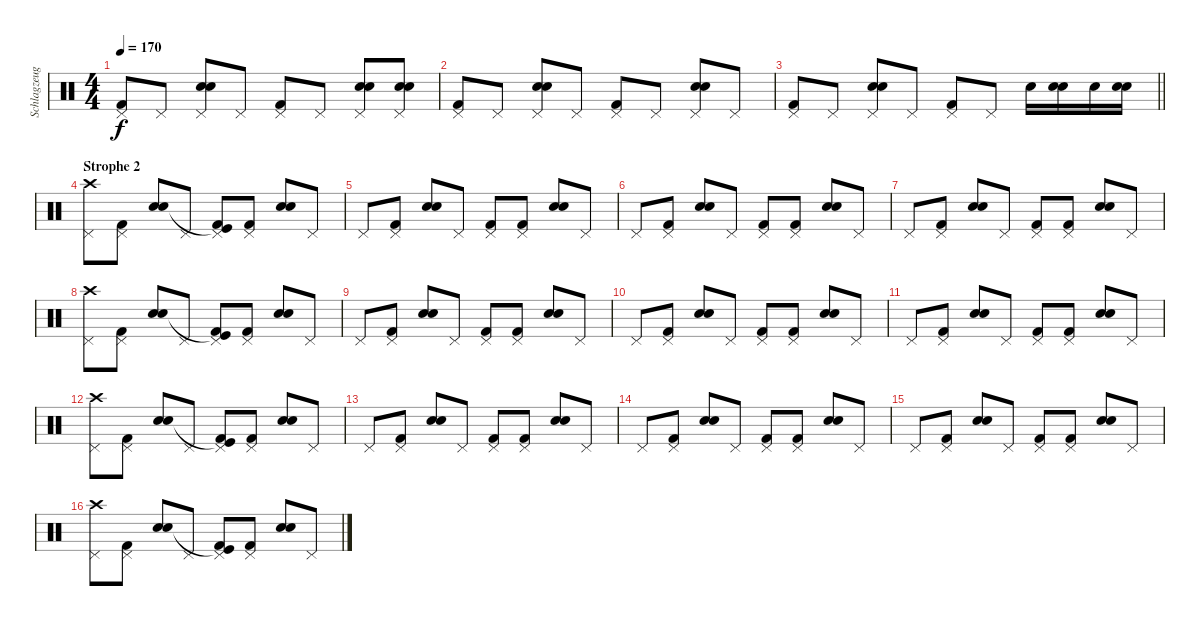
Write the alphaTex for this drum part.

\track ("Schlagzeug" "Schlagzeug") {instrument percussion}
\staff {score}
\articulation defaults
\ts (4 4)
\tempo 170
\clef neutral
\ks c
("Pedal Hi-Hat (hit)" "Kick (hit) 2").8{dy f} "Pedal Hi-Hat (hit)".8 ("Pedal Hi-Hat (hit)" "Snare (hit) 2" "Snare (hit) 2").8 "Pedal Hi-Hat (hit)".8 ("Pedal Hi-Hat (hit)" "Kick (hit) 2").8 "Pedal Hi-Hat (hit)".8 ("Pedal Hi-Hat (hit)" "Snare (hit) 2" "Snare (hit) 2").8 ("Pedal Hi-Hat (hit)" "Snare (hit) 2" "Snare (hit) 2").8 |
("Pedal Hi-Hat (hit)" "Kick (hit) 2").8 "Pedal Hi-Hat (hit)".8 ("Pedal Hi-Hat (hit)" "Snare (hit) 2" "Snare (hit) 2").8 "Pedal Hi-Hat (hit)".8 ("Pedal Hi-Hat (hit)" "Kick (hit) 2").8 "Pedal Hi-Hat (hit)".8 ("Pedal Hi-Hat (hit)" "Snare (hit) 2" "Snare (hit) 2").8 "Pedal Hi-Hat (hit)".8 |
\barLineRight lightlight
("Pedal Hi-Hat (hit)" "Kick (hit) 2").8 "Pedal Hi-Hat (hit)".8 ("Pedal Hi-Hat (hit)" "Snare (hit) 2" "Snare (hit) 2").8 "Pedal Hi-Hat (hit)".8 ("Pedal Hi-Hat (hit)" "Kick (hit) 2").8 "Pedal Hi-Hat (hit)".8 "Snare (hit) 2".16 ("Snare (hit) 2" "Snare (hit) 2").16 "Snare (hit) 2".16 ("Snare (hit) 2" "Snare (hit) 2").16 |
\section ("" "Strophe 2")
("Pedal Hi-Hat (hit)" "Crash high (hit)").8 ("Pedal Hi-Hat (hit)" "Kick (hit) 2").8 ("Snare (hit) 2" "Snare (hit) 2").8 "Pedal Hi-Hat (hit)".8 ("Pedal Hi-Hat (hit)" "Kick (hit)"{t} "Kick (hit) 2").8 ("Pedal Hi-Hat (hit)" "Kick (hit) 2").8 ("Snare (hit) 2" "Snare (hit) 2").8 "Pedal Hi-Hat (hit)".8 |
"Pedal Hi-Hat (hit)".8 ("Pedal Hi-Hat (hit)" "Kick (hit) 2").8 ("Snare (hit) 2" "Snare (hit) 2").8 "Pedal Hi-Hat (hit)".8 ("Pedal Hi-Hat (hit)" "Kick (hit) 2").8 ("Pedal Hi-Hat (hit)" "Kick (hit) 2").8 ("Snare (hit) 2" "Snare (hit) 2").8 "Pedal Hi-Hat (hit)".8 |
"Pedal Hi-Hat (hit)".8 ("Pedal Hi-Hat (hit)" "Kick (hit) 2").8 ("Snare (hit) 2" "Snare (hit) 2").8 "Pedal Hi-Hat (hit)".8 ("Pedal Hi-Hat (hit)" "Kick (hit) 2").8 ("Pedal Hi-Hat (hit)" "Kick (hit) 2").8 ("Snare (hit) 2" "Snare (hit) 2").8 "Pedal Hi-Hat (hit)".8 |
"Pedal Hi-Hat (hit)".8 ("Pedal Hi-Hat (hit)" "Kick (hit) 2").8 ("Snare (hit) 2" "Snare (hit) 2").8 "Pedal Hi-Hat (hit)".8 ("Pedal Hi-Hat (hit)" "Kick (hit) 2").8 ("Pedal Hi-Hat (hit)" "Kick (hit) 2").8 ("Snare (hit) 2" "Snare (hit) 2").8 "Pedal Hi-Hat (hit)".8 |
("Pedal Hi-Hat (hit)" "Crash high (hit)").8 ("Pedal Hi-Hat (hit)" "Kick (hit) 2").8 ("Snare (hit) 2" "Snare (hit) 2").8 "Pedal Hi-Hat (hit)".8 ("Pedal Hi-Hat (hit)" "Kick (hit)"{t} "Kick (hit) 2").8 ("Pedal Hi-Hat (hit)" "Kick (hit) 2").8 ("Snare (hit) 2" "Snare (hit) 2").8 "Pedal Hi-Hat (hit)".8 |
"Pedal Hi-Hat (hit)".8 ("Pedal Hi-Hat (hit)" "Kick (hit) 2").8 ("Snare (hit) 2" "Snare (hit) 2").8 "Pedal Hi-Hat (hit)".8 ("Pedal Hi-Hat (hit)" "Kick (hit) 2").8 ("Pedal Hi-Hat (hit)" "Kick (hit) 2").8 ("Snare (hit) 2" "Snare (hit) 2").8 "Pedal Hi-Hat (hit)".8 |
"Pedal Hi-Hat (hit)".8 ("Pedal Hi-Hat (hit)" "Kick (hit) 2").8 ("Snare (hit) 2" "Snare (hit) 2").8 "Pedal Hi-Hat (hit)".8 ("Pedal Hi-Hat (hit)" "Kick (hit) 2").8 ("Pedal Hi-Hat (hit)" "Kick (hit) 2").8 ("Snare (hit) 2" "Snare (hit) 2").8 "Pedal Hi-Hat (hit)".8 |
"Pedal Hi-Hat (hit)".8 ("Pedal Hi-Hat (hit)" "Kick (hit) 2").8 ("Snare (hit) 2" "Snare (hit) 2").8 "Pedal Hi-Hat (hit)".8 ("Pedal Hi-Hat (hit)" "Kick (hit) 2").8 ("Pedal Hi-Hat (hit)" "Kick (hit) 2").8 ("Snare (hit) 2" "Snare (hit) 2").8 "Pedal Hi-Hat (hit)".8 |
("Pedal Hi-Hat (hit)" "Crash high (hit)").8 ("Pedal Hi-Hat (hit)" "Kick (hit) 2").8 ("Snare (hit) 2" "Snare (hit) 2").8 "Pedal Hi-Hat (hit)".8 ("Pedal Hi-Hat (hit)" "Kick (hit)"{t} "Kick (hit) 2").8 ("Pedal Hi-Hat (hit)" "Kick (hit) 2").8 ("Snare (hit) 2" "Snare (hit) 2").8 "Pedal Hi-Hat (hit)".8 |
"Pedal Hi-Hat (hit)".8 ("Pedal Hi-Hat (hit)" "Kick (hit) 2").8 ("Snare (hit) 2" "Snare (hit) 2").8 "Pedal Hi-Hat (hit)".8 ("Pedal Hi-Hat (hit)" "Kick (hit) 2").8 ("Pedal Hi-Hat (hit)" "Kick (hit) 2").8 ("Snare (hit) 2" "Snare (hit) 2").8 "Pedal Hi-Hat (hit)".8 |
"Pedal Hi-Hat (hit)".8 ("Pedal Hi-Hat (hit)" "Kick (hit) 2").8 ("Snare (hit) 2" "Snare (hit) 2").8 "Pedal Hi-Hat (hit)".8 ("Pedal Hi-Hat (hit)" "Kick (hit) 2").8 ("Pedal Hi-Hat (hit)" "Kick (hit) 2").8 ("Snare (hit) 2" "Snare (hit) 2").8 "Pedal Hi-Hat (hit)".8 |
"Pedal Hi-Hat (hit)".8 ("Pedal Hi-Hat (hit)" "Kick (hit) 2").8 ("Snare (hit) 2" "Snare (hit) 2").8 "Pedal Hi-Hat (hit)".8 ("Pedal Hi-Hat (hit)" "Kick (hit) 2").8 ("Pedal Hi-Hat (hit)" "Kick (hit) 2").8 ("Snare (hit) 2" "Snare (hit) 2").8 "Pedal Hi-Hat (hit)".8 |
("Pedal Hi-Hat (hit)" "Crash high (hit)").8 ("Pedal Hi-Hat (hit)" "Kick (hit) 2").8 ("Snare (hit) 2" "Snare (hit) 2").8 "Pedal Hi-Hat (hit)".8 ("Pedal Hi-Hat (hit)" "Kick (hit)"{t} "Kick (hit) 2").8 ("Pedal Hi-Hat (hit)" "Kick (hit) 2").8 ("Snare (hit) 2" "Snare (hit) 2").8 "Pedal Hi-Hat (hit)".8
